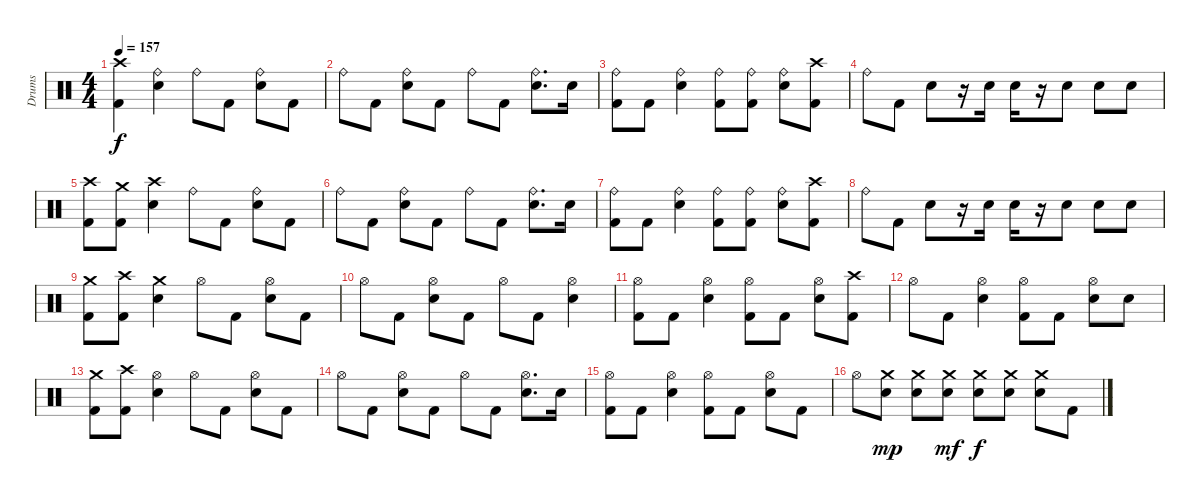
\track ("Drums" "Drums") {instrument percussion}
\staff {score}
\articulation defaults
\ts (4 4)
\tempo 157
\clef neutral
\ks c
("Kick (hit) 2" "Crash high (hit)").4{dy f} ("Electric Snare (hit)" "Ride (bell)").4 "Ride (bell)".8 "Kick (hit) 2".8 ("Electric Snare (hit)" "Ride (bell)").8 "Kick (hit) 2".8 |
"Ride (bell)".8 "Kick (hit) 2".8 ("Electric Snare (hit)" "Ride (bell)").8 "Kick (hit) 2".8 "Ride (bell)".8 "Kick (hit) 2".8 ("Electric Snare (hit)" "Ride (bell)").8{d} "Electric Snare (hit)".16 |
("Kick (hit) 2" "Ride (bell)").8 "Kick (hit) 2".8 ("Electric Snare (hit)" "Ride (bell)").4 ("Kick (hit) 2" "Ride (bell)").8 ("Kick (hit) 2" "Ride (bell)").8 ("Electric Snare (hit)" "Ride (bell)").8 ("Kick (hit) 2" "Crash high (hit)").8 |
"Ride (bell)".8 "Kick (hit) 2".8 "Electric Snare (hit)".8 r.16 "Electric Snare (hit)".16 "Electric Snare (hit)".16 r.16 "Electric Snare (hit)".8 "Electric Snare (hit)".8 "Electric Snare (hit)".8 |
("Kick (hit) 2" "Crash high (hit)").8 ("Kick (hit) 2" "Crash medium (hit)").8 ("Electric Snare (hit)" "Crash high (hit)").4 "Ride (bell)".8 "Kick (hit) 2".8 ("Electric Snare (hit)" "Ride (bell)").8 "Kick (hit) 2".8 |
"Ride (bell)".8 "Kick (hit) 2".8 ("Electric Snare (hit)" "Ride (bell)").8 "Kick (hit) 2".8 "Ride (bell)".8 "Kick (hit) 2".8 ("Electric Snare (hit)" "Ride (bell)").8{d} "Electric Snare (hit)".16 |
("Kick (hit) 2" "Ride (bell)").8 "Kick (hit) 2".8 ("Electric Snare (hit)" "Ride (bell)").4 ("Kick (hit) 2" "Ride (bell)").8 ("Kick (hit) 2" "Ride (bell)").8 ("Electric Snare (hit)" "Ride (bell)").8 ("Kick (hit) 2" "Crash high (hit)").8 |
"Ride (bell)".8 "Kick (hit) 2".8 "Electric Snare (hit)".8 r.16 "Electric Snare (hit)".16 "Electric Snare (hit)".16 r.16 "Electric Snare (hit)".8 "Electric Snare (hit)".8 "Electric Snare (hit)".8 |
("Crash medium (hit)" "Kick (hit) 2").8 ("Kick (hit) 2" "Crash high (hit)").8 ("Electric Snare (hit)" "Crash medium (hit)").4 "Hi-Hat (open)".8 "Kick (hit) 2".8 ("Electric Snare (hit)" "Hi-Hat (open)").8 "Kick (hit) 2".8 |
"Hi-Hat (open)".8 "Kick (hit) 2".8 ("Hi-Hat (open)" "Electric Snare (hit)").8 "Kick (hit) 2".8 "Hi-Hat (open)".8 "Kick (hit) 2".8 ("Hi-Hat (open)" "Electric Snare (hit)").4 |
("Kick (hit) 2" "Hi-Hat (open)").8 "Kick (hit) 2".8 ("Electric Snare (hit)" "Hi-Hat (open)").4 ("Kick (hit) 2" "Hi-Hat (open)").8 "Kick (hit) 2".8 ("Hi-Hat (open)" "Electric Snare (hit)").8 ("Kick (hit) 2" "Crash high (hit)").8 |
"Hi-Hat (open)".8 "Kick (hit) 2".8 ("Electric Snare (hit)" "Hi-Hat (open)").4 ("Kick (hit) 2" "Hi-Hat (open)").8 "Kick (hit) 2".8 ("Electric Snare (hit)" "Hi-Hat (open)").8 "Electric Snare (hit)".8 |
("Kick (hit) 2" "Crash medium (hit)").8 ("Kick (hit) 2" "Crash high (hit)").8 ("Electric Snare (hit)" "Hi-Hat (open)").4 "Hi-Hat (open)".8 "Kick (hit) 2".8 ("Electric Snare (hit)" "Hi-Hat (open)").8 "Kick (hit) 2".8 |
"Hi-Hat (open)".8 "Kick (hit) 2".8 ("Hi-Hat (open)" "Electric Snare (hit)").8 "Kick (hit) 2".8 "Hi-Hat (open)".8 "Kick (hit) 2".8 ("Hi-Hat (open)" "Electric Snare (hit)").8{d} "Electric Snare (hit)".16 |
("Kick (hit) 2" "Hi-Hat (open)").8 "Kick (hit) 2".8 ("Electric Snare (hit)" "Hi-Hat (open)").4 ("Kick (hit) 2" "Hi-Hat (open)").8 "Kick (hit) 2".8 ("Electric Snare (hit)" "Hi-Hat (open)").8 "Kick (hit) 2".8 |
"Hi-Hat (open)".8 ("Crash medium (hit)" "Electric Snare (hit)").8{dy mp} ("Crash medium (hit)" "Electric Snare (hit)").8 ("Crash medium (hit)" "Electric Snare (hit)").8{dy mf} ("Crash medium (hit)" "Electric Snare (hit)").8{dy f} ("Crash medium (hit)" "Electric Snare (hit)").8 ("Electric Snare (hit)" "Crash medium (hit)").8 "Kick (hit) 2".8
